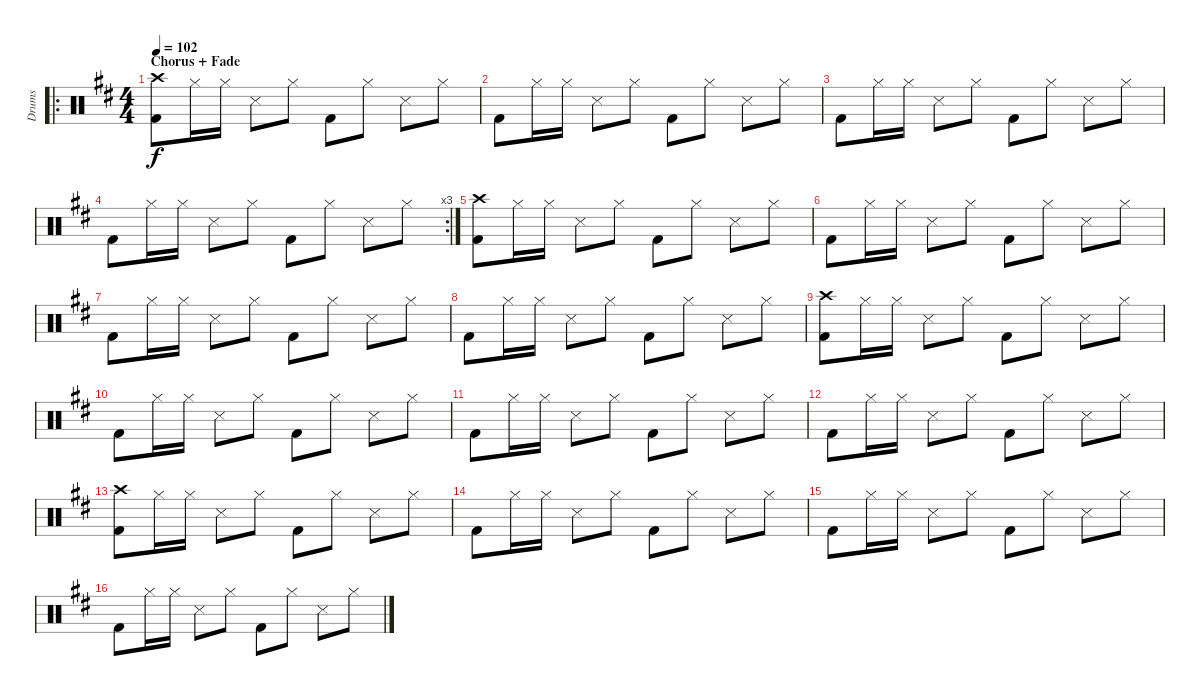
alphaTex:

\track ("Drums" "Drums") {instrument percussion}
\staff {score}
\articulation defaults
\ro
\ts (4 4)
\section ("" "Chorus + Fade")
\tempo 102
\clef neutral
\ks d
("Crash high (hit)" "Kick (hit) 2").8{dy f} "Hi-Hat (closed)".16 "Hi-Hat (closed)".16 "Snare (side stick) 3".8 "Hi-Hat (closed)".8 "Kick (hit) 2".8 "Hi-Hat (closed)".8 "Snare (side stick) 3".8 "Hi-Hat (closed)".8 |
"Kick (hit) 2".8 "Hi-Hat (closed)".16 "Hi-Hat (closed)".16 "Snare (side stick) 3".8 "Hi-Hat (closed)".8 "Kick (hit) 2".8 "Hi-Hat (closed)".8 "Snare (side stick) 3".8 "Hi-Hat (closed)".8 |
"Kick (hit) 2".8 "Hi-Hat (closed)".16 "Hi-Hat (closed)".16 "Snare (side stick) 3".8 "Hi-Hat (closed)".8 "Kick (hit) 2".8 "Hi-Hat (closed)".8 "Snare (side stick) 3".8 "Hi-Hat (closed)".8 |
\rc 3 "Kick (hit) 2".8 "Hi-Hat (closed)".16 "Hi-Hat (closed)".16 "Snare (side stick) 3".8 "Hi-Hat (closed)".8 "Kick (hit) 2".8 "Hi-Hat (closed)".8 "Snare (side stick) 3".8 "Hi-Hat (closed)".8
|
("Crash high (hit)" "Kick (hit) 2").8 "Hi-Hat (closed)".16 "Hi-Hat (closed)".16 "Snare (side stick) 3".8 "Hi-Hat (closed)".8 "Kick (hit) 2".8 "Hi-Hat (closed)".8 "Snare (side stick) 3".8 "Hi-Hat (closed)".8 |
"Kick (hit) 2".8 "Hi-Hat (closed)".16 "Hi-Hat (closed)".16 "Snare (side stick) 3".8 "Hi-Hat (closed)".8 "Kick (hit) 2".8 "Hi-Hat (closed)".8 "Snare (side stick) 3".8 "Hi-Hat (closed)".8 |
"Kick (hit) 2".8 "Hi-Hat (closed)".16 "Hi-Hat (closed)".16 "Snare (side stick) 3".8 "Hi-Hat (closed)".8 "Kick (hit) 2".8 "Hi-Hat (closed)".8 "Snare (side stick) 3".8 "Hi-Hat (closed)".8 |
"Kick (hit) 2".8 "Hi-Hat (closed)".16 "Hi-Hat (closed)".16 "Snare (side stick) 3".8 "Hi-Hat (closed)".8 "Kick (hit) 2".8 "Hi-Hat (closed)".8 "Snare (side stick) 3".8 "Hi-Hat (closed)".8 |
("Crash high (hit)" "Kick (hit) 2").8 "Hi-Hat (closed)".16 "Hi-Hat (closed)".16 "Snare (side stick) 3".8 "Hi-Hat (closed)".8 "Kick (hit) 2".8 "Hi-Hat (closed)".8 "Snare (side stick) 3".8 "Hi-Hat (closed)".8 |
"Kick (hit) 2".8 "Hi-Hat (closed)".16 "Hi-Hat (closed)".16 "Snare (side stick) 3".8 "Hi-Hat (closed)".8 "Kick (hit) 2".8 "Hi-Hat (closed)".8 "Snare (side stick) 3".8 "Hi-Hat (closed)".8 |
"Kick (hit) 2".8 "Hi-Hat (closed)".16 "Hi-Hat (closed)".16 "Snare (side stick) 3".8 "Hi-Hat (closed)".8 "Kick (hit) 2".8 "Hi-Hat (closed)".8 "Snare (side stick) 3".8 "Hi-Hat (closed)".8 |
"Kick (hit) 2".8 "Hi-Hat (closed)".16 "Hi-Hat (closed)".16 "Snare (side stick) 3".8 "Hi-Hat (closed)".8 "Kick (hit) 2".8 "Hi-Hat (closed)".8 "Snare (side stick) 3".8 "Hi-Hat (closed)".8 |
("Crash high (hit)" "Kick (hit) 2").8 "Hi-Hat (closed)".16 "Hi-Hat (closed)".16 "Snare (side stick) 3".8 "Hi-Hat (closed)".8 "Kick (hit) 2".8 "Hi-Hat (closed)".8 "Snare (side stick) 3".8 "Hi-Hat (closed)".8 |
"Kick (hit) 2".8 "Hi-Hat (closed)".16 "Hi-Hat (closed)".16 "Snare (side stick) 3".8 "Hi-Hat (closed)".8 "Kick (hit) 2".8 "Hi-Hat (closed)".8 "Snare (side stick) 3".8 "Hi-Hat (closed)".8 |
"Kick (hit) 2".8 "Hi-Hat (closed)".16 "Hi-Hat (closed)".16 "Snare (side stick) 3".8 "Hi-Hat (closed)".8 "Kick (hit) 2".8 "Hi-Hat (closed)".8 "Snare (side stick) 3".8 "Hi-Hat (closed)".8 |
"Kick (hit) 2".8 "Hi-Hat (closed)".16 "Hi-Hat (closed)".16 "Snare (side stick) 3".8 "Hi-Hat (closed)".8 "Kick (hit) 2".8 "Hi-Hat (closed)".8 "Snare (side stick) 3".8 "Hi-Hat (closed)".8
